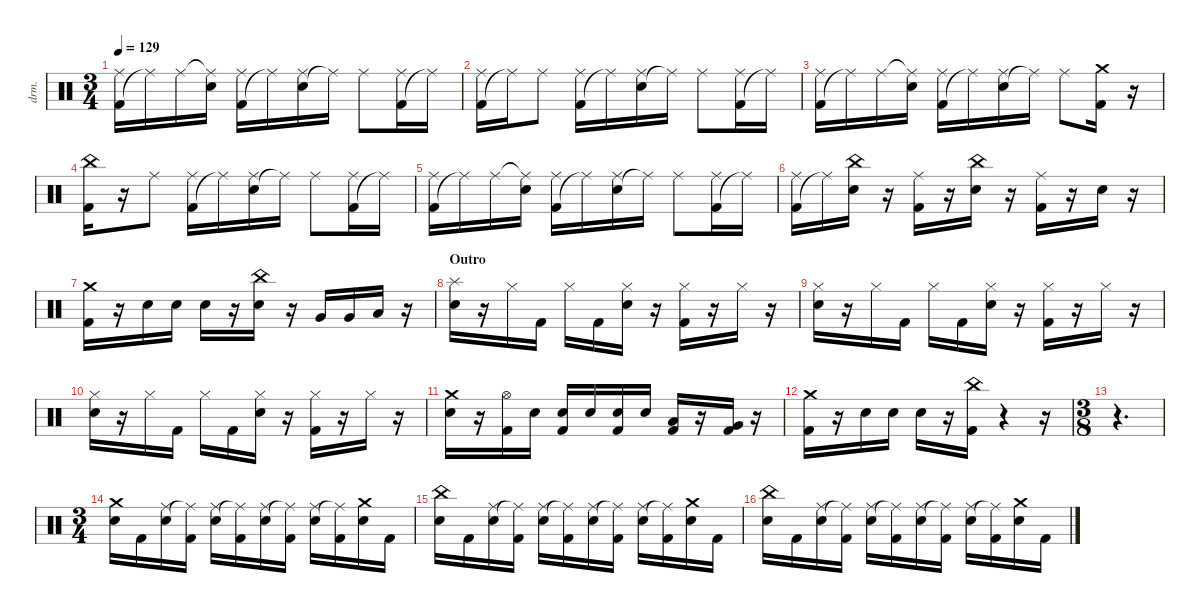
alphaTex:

\defaultSystemsLayout 4
\hideDynamics
\bracketExtendMode nobrackets
\otherSystemsTrackNameOrientation horizontal
\track ("Drumkit" "drm.") {instrument percussion}
\staff {score}
\articulation defaults
\ts (3 4)
\tempo 129
\clef neutral
\ks c
("Kick (hit) 2" "Ride (middle)"{acc #}).16{dy fff} "Ride (middle)"{t acc #}.16 "Ride (middle)"{acc #}.16 ("Ride (middle)"{t acc #} "Snare (hit) 2").16 ("Kick (hit) 2" "Ride (middle)"{acc #}).16 "Ride (middle)"{t acc #}.16 ("Snare (hit) 2" "Ride (middle)"{acc #}).16 "Ride (middle)"{t acc #}.16 "Ride (middle)"{acc #}.8 ("Kick (hit) 2" "Ride (middle)"{acc #}).16 "Ride (middle)"{t acc #}.16 |
("Kick (hit) 2" "Ride (middle)"{acc #}).16 "Ride (middle)"{t acc #}.16 "Ride (middle)"{acc #}.8 ("Kick (hit) 2" "Ride (middle)"{acc #}).16 "Ride (middle)"{t acc #}.16 ("Snare (hit) 2" "Ride (middle)"{acc #}).16 "Ride (middle)"{t acc #}.16 "Ride (middle)"{acc #}.8 ("Kick (hit) 2" "Ride (middle)"{acc #}).16 "Ride (middle)"{t acc #}.16 |
("Kick (hit) 2" "Ride (middle)"{acc #}).16 "Ride (middle)"{t acc #}.16 "Ride (middle)"{acc #}.16 ("Ride (middle)"{t acc #} "Snare (hit) 2").16 ("Kick (hit) 2" "Ride (middle)"{acc #}).16 "Ride (middle)"{t acc #}.16 ("Snare (hit) 2" "Ride (middle)"{acc #}).16 "Ride (middle)"{t acc #}.16 "Ride (middle)"{acc #}.8 ("Kick (hit) 2" "Crash medium (hit)").16 r.16 |
("Kick (hit) 2" "China (hit)").16 r.16 "Ride (middle)"{acc #}.8 ("Kick (hit) 2" "Ride (middle)"{acc #}).16 "Ride (middle)"{t acc #}.16 ("Snare (hit) 2" "Ride (middle)"{acc #}).16 "Ride (middle)"{t acc #}.16 "Ride (middle)"{acc #}.8 ("Kick (hit) 2" "Ride (middle)"{acc #}).16 "Ride (middle)"{t acc #}.16 |
("Kick (hit) 2" "Ride (middle)"{acc #}).16 "Ride (middle)"{t acc #}.16 "Ride (middle)"{acc #}.16 ("Ride (middle)"{t acc #} "Snare (hit) 2").16 ("Kick (hit) 2" "Ride (middle)"{acc #}).16 "Ride (middle)"{t acc #}.16 ("Snare (hit) 2" "Ride (middle)"{acc #}).16 "Ride (middle)"{t acc #}.16 "Ride (middle)"{acc #}.8 ("Kick (hit) 2" "Ride (middle)"{acc #}).16 "Ride (middle)"{t acc #}.16 |
("Kick (hit) 2" "Ride (middle)"{acc #}).16 "Ride (middle)"{t acc #}.16 ("Snare (hit) 2" "China (hit)").16 r.16 ("Kick (hit) 2" "Ride (middle)"{acc #}).16 r.16 ("Snare (hit) 2" "China (hit)").16 r.16 ("Kick (hit) 2" "Ride (middle)"{acc #}).16 r.16 "Snare (hit) 2".16 r.16 |
("Kick (hit) 2" "Crash medium (hit)").16 r.16 "Snare (hit) 2".16 "Snare (hit) 2".16 "Snare (hit) 2".16 r.16 ("Snare (hit) 2" "China (hit)").16 r.16 "Very Low Tom (hit)".16 "Very Low Tom (hit)".16 "Low Floor Tom (hit)".16 r.16 |
\section ("" "Outro")
("Snare (hit) 2" "Splash (hit)").16 r.16 "Hi-Hat (closed)"{acc #}.16 "Kick (hit) 2".16 "Hi-Hat (closed)"{acc #}.16 "Kick (hit) 2".16 ("Snare (hit) 2" "Hi-Hat (closed)"{acc #}).16 r.16 ("Kick (hit) 2" "Hi-Hat (closed)"{acc #}).16 r.16 "Hi-Hat (closed)"{acc #}.16 r.16 |
("Snare (hit) 2" "Hi-Hat (closed)"{acc #}).16 r.16 "Hi-Hat (closed)"{acc #}.16 "Kick (hit) 2".16 "Hi-Hat (closed)"{acc #}.16 "Kick (hit) 2".16 ("Snare (hit) 2" "Hi-Hat (closed)"{acc #}).16 r.16 ("Kick (hit) 2" "Hi-Hat (closed)"{acc #}).16 r.16 "Hi-Hat (closed)"{acc #}.16 r.16 |
("Snare (hit) 2" "Hi-Hat (closed)"{acc #}).16 r.16 "Hi-Hat (closed)"{acc #}.16 "Kick (hit) 2".16 "Hi-Hat (closed)"{acc #}.16 "Kick (hit) 2".16 ("Snare (hit) 2" "Hi-Hat (closed)"{acc #}).16 r.16 ("Kick (hit) 2" "Hi-Hat (closed)"{acc #}).16 r.16 "Hi-Hat (closed)"{acc #}.16 r.16 |
("Snare (hit) 2" "Crash medium (hit)").16 r.16 ("Kick (hit) 2" "Hi-Hat (open)"{acc #}).16 "Snare (hit) 2".16 ("Kick (hit) 2" "Snare (hit) 2").16 "Snare (hit) 2".16 ("Kick (hit) 2" "Snare (hit) 2").16 "Snare (hit) 2".16 ("Kick (hit) 2" "Low Tom (hit)").16 r.16 ("Kick (hit) 2" "Very Low Tom (hit)").16 r.16 |
("Kick (hit) 2" "Crash medium (hit)").16 r.16 "Snare (hit) 2".16 "Snare (hit) 2".16 "Snare (hit) 2".16 r.16 ("Kick (hit) 2" "China (hit)").16 r.4 r.16 |
\ts (3 8)
\beaming (8 3)
r.4{d} |
\ts (3 4)
\beaming (8 2 2 2)
("Snare (hit) 2" "Crash medium (hit)").16 "Kick (hit) 2".16 ("Snare (hit) 2" "Ride (middle)"{acc #}).16 ("Ride (middle)"{t acc #} "Kick (hit) 2").16 ("Snare (hit) 2" "Ride (middle)"{acc #}).16 ("Ride (middle)"{t acc #} "Kick (hit) 2").16 ("Snare (hit) 2" "Ride (middle)"{acc #}).16 ("Ride (middle)"{t acc #} "Kick (hit) 2").16 ("Snare (hit) 2" "Ride (middle)"{acc #}).16 ("Ride (middle)"{t acc #} "Kick (hit) 2").16 ("Snare (hit) 2" "Crash medium (hit)").16 "Kick (hit) 2".16 |
("Snare (hit) 2" "China (hit)").16 "Kick (hit) 2".16 ("Snare (hit) 2" "Ride (middle)"{acc #}).16 ("Ride (middle)"{t acc #} "Kick (hit) 2").16 ("Snare (hit) 2" "Ride (middle)"{acc #}).16 ("Ride (middle)"{t acc #} "Kick (hit) 2").16 ("Snare (hit) 2" "Ride (middle)"{acc #}).16 ("Ride (middle)"{t acc #} "Kick (hit) 2").16 ("Snare (hit) 2" "Ride (middle)"{acc #}).16 ("Ride (middle)"{t acc #} "Kick (hit) 2").16 ("Snare (hit) 2" "Crash medium (hit)").16 "Kick (hit) 2".16 |
("Snare (hit) 2" "China (hit)").16 "Kick (hit) 2".16 ("Snare (hit) 2" "Ride (middle)"{acc #}).16 ("Ride (middle)"{t acc #} "Kick (hit) 2").16 ("Snare (hit) 2" "Ride (middle)"{acc #}).16 ("Ride (middle)"{t acc #} "Kick (hit) 2").16 ("Snare (hit) 2" "Ride (middle)"{acc #}).16 ("Ride (middle)"{t acc #} "Kick (hit) 2").16 ("Snare (hit) 2" "Ride (middle)"{acc #}).16 ("Ride (middle)"{t acc #} "Kick (hit) 2").16 ("Snare (hit) 2" "Crash medium (hit)").16 "Kick (hit) 2".16
